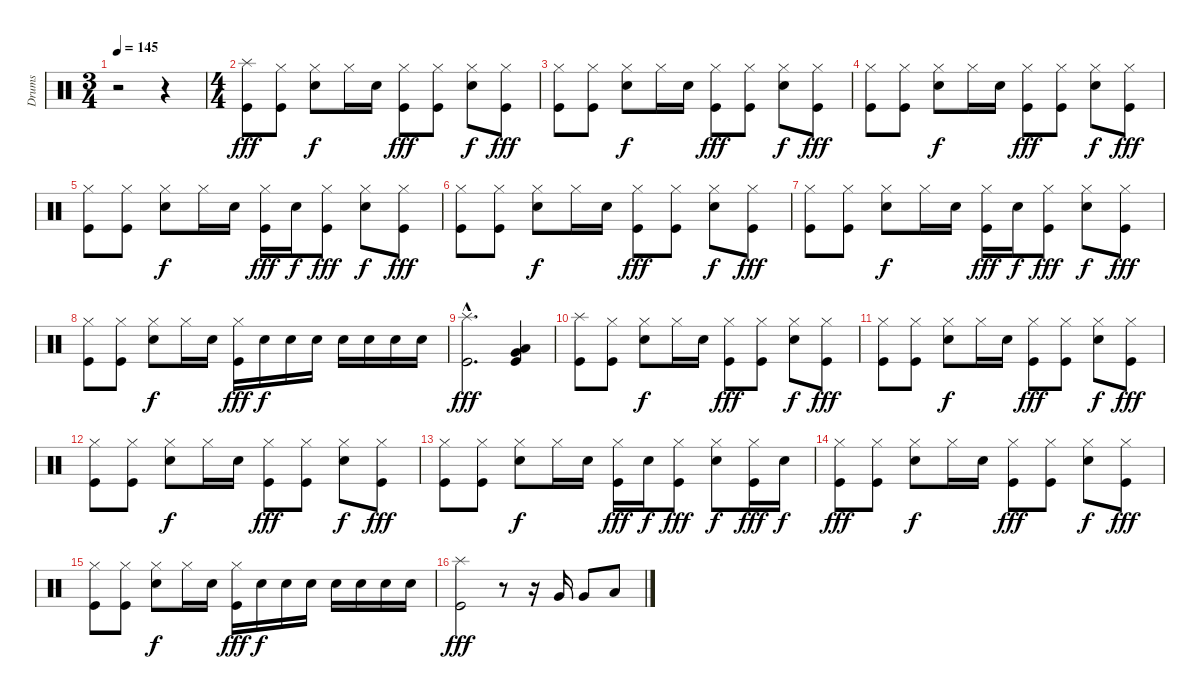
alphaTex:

\track ("Drums" "Drums") {instrument percussion}
\staff {score}
\articulation defaults
\ts (3 4)
\tempo 145
\clef neutral
\ks c
r.2{dy fff} r.4 |
\ts (4 4)
("Splash (hit)" "Kick (hit)").8 ("Hi-Hat (closed)" "Kick (hit)").8 ("Hi-Hat (closed)" "Snare (hit) 2").8{dy f} "Hi-Hat (closed)".16 "Snare (hit) 2".16 ("Hi-Hat (closed)" "Kick (hit)").8{dy fff} ("Hi-Hat (closed)" "Kick (hit)").8 ("Hi-Hat (closed)" "Snare (hit) 2").8{dy f} ("Hi-Hat (closed)" "Kick (hit)").8{dy fff} |
("Hi-Hat (closed)" "Kick (hit)").8 ("Hi-Hat (closed)" "Kick (hit)").8 ("Hi-Hat (closed)" "Snare (hit) 2").8{dy f} "Hi-Hat (closed)".16 "Snare (hit) 2".16 ("Hi-Hat (closed)" "Kick (hit)").8{dy fff} ("Hi-Hat (closed)" "Kick (hit)").8 ("Hi-Hat (closed)" "Snare (hit) 2").8{dy f} ("Hi-Hat (closed)" "Kick (hit)").8{dy fff} |
("Hi-Hat (closed)" "Kick (hit)").8 ("Hi-Hat (closed)" "Kick (hit)").8 ("Hi-Hat (closed)" "Snare (hit) 2").8{dy f} "Hi-Hat (closed)".16 "Snare (hit) 2".16 ("Hi-Hat (closed)" "Kick (hit)").8{dy fff} ("Hi-Hat (closed)" "Kick (hit)").8 ("Hi-Hat (closed)" "Snare (hit) 2").8{dy f} ("Hi-Hat (closed)" "Kick (hit)").8{dy fff} |
("Hi-Hat (closed)" "Kick (hit)").8 ("Hi-Hat (closed)" "Kick (hit)").8 ("Hi-Hat (closed)" "Snare (hit) 2").8{dy f} "Hi-Hat (closed)".16 "Snare (hit) 2".16 ("Hi-Hat (closed)" "Kick (hit)").16{dy fff} "Snare (hit) 2".16{dy f} ("Hi-Hat (closed)" "Kick (hit)").8{dy fff} ("Hi-Hat (closed)" "Snare (hit) 2").8{dy f} ("Hi-Hat (closed)" "Kick (hit)").8{dy fff} |
("Hi-Hat (closed)" "Kick (hit)").8 ("Hi-Hat (closed)" "Kick (hit)").8 ("Hi-Hat (closed)" "Snare (hit) 2").8{dy f} "Hi-Hat (closed)".16 "Snare (hit) 2".16 ("Hi-Hat (closed)" "Kick (hit)").8{dy fff} ("Hi-Hat (closed)" "Kick (hit)").8 ("Hi-Hat (closed)" "Snare (hit) 2").8{dy f} ("Hi-Hat (closed)" "Kick (hit)").8{dy fff} |
("Hi-Hat (closed)" "Kick (hit)").8 ("Hi-Hat (closed)" "Kick (hit)").8 ("Hi-Hat (closed)" "Snare (hit) 2").8{dy f} "Hi-Hat (closed)".16 "Snare (hit) 2".16 ("Hi-Hat (closed)" "Kick (hit)").16{dy fff} "Snare (hit) 2".16{dy f} ("Hi-Hat (closed)" "Kick (hit)").8{dy fff} ("Hi-Hat (closed)" "Snare (hit) 2").8{dy f} ("Hi-Hat (closed)" "Kick (hit)").8{dy fff} |
("Hi-Hat (closed)" "Kick (hit)").8 ("Hi-Hat (closed)" "Kick (hit)").8 ("Hi-Hat (closed)" "Snare (hit) 2").8{dy f} "Hi-Hat (closed)".16 "Snare (hit) 2".16 ("Hi-Hat (closed)" "Kick (hit)").16{dy fff} "Snare (hit) 2".16{dy f} "Snare (hit) 2".16 "Snare (hit) 2".16 "Snare (hit) 2".16 "Snare (hit) 2".16 "Snare (hit) 2".16 "Snare (hit) 2".16 |
("Splash (hit)"{hac} "Kick (hit)"{hac}).2{d dy fff} ("Low Tom (hit)" "Very Low Tom (hit)" "Kick (hit)").4 |
("Splash (hit)" "Kick (hit)").8 ("Hi-Hat (closed)" "Kick (hit)").8 ("Hi-Hat (closed)" "Snare (hit) 2").8{dy f} "Hi-Hat (closed)".16 "Snare (hit) 2".16 ("Hi-Hat (closed)" "Kick (hit)").8{dy fff} ("Hi-Hat (closed)" "Kick (hit)").8 ("Hi-Hat (closed)" "Snare (hit) 2").8{dy f} ("Hi-Hat (closed)" "Kick (hit)").8{dy fff} |
("Hi-Hat (closed)" "Kick (hit)").8 ("Hi-Hat (closed)" "Kick (hit)").8 ("Hi-Hat (closed)" "Snare (hit) 2").8{dy f} "Hi-Hat (closed)".16 "Snare (hit) 2".16 ("Hi-Hat (closed)" "Kick (hit)").8{dy fff} ("Hi-Hat (closed)" "Kick (hit)").8 ("Hi-Hat (closed)" "Snare (hit) 2").8{dy f} ("Hi-Hat (closed)" "Kick (hit)").8{dy fff} |
("Hi-Hat (closed)" "Kick (hit)").8 ("Hi-Hat (closed)" "Kick (hit)").8 ("Hi-Hat (closed)" "Snare (hit) 2").8{dy f} "Hi-Hat (closed)".16 "Snare (hit) 2".16 ("Hi-Hat (closed)" "Kick (hit)").8{dy fff} ("Hi-Hat (closed)" "Kick (hit)").8 ("Hi-Hat (closed)" "Snare (hit) 2").8{dy f} ("Hi-Hat (closed)" "Kick (hit)").8{dy fff} |
("Hi-Hat (closed)" "Kick (hit)").8 ("Hi-Hat (closed)" "Kick (hit)").8 ("Hi-Hat (closed)" "Snare (hit) 2").8{dy f} "Hi-Hat (closed)".16 "Snare (hit) 2".16 ("Hi-Hat (closed)" "Kick (hit)").16{dy fff} "Snare (hit) 2".16{dy f} ("Hi-Hat (closed)" "Kick (hit)").8{dy fff} ("Hi-Hat (closed)" "Snare (hit) 2").8{dy f} ("Hi-Hat (closed)" "Kick (hit)").16{dy fff} "Snare (hit) 2".16{dy f} |
("Hi-Hat (closed)" "Kick (hit)").8{dy fff} ("Hi-Hat (closed)" "Kick (hit)").8 ("Hi-Hat (closed)" "Snare (hit) 2").8{dy f} "Hi-Hat (closed)".16 "Snare (hit) 2".16 ("Hi-Hat (closed)" "Kick (hit)").8{dy fff} ("Hi-Hat (closed)" "Kick (hit)").8 ("Hi-Hat (closed)" "Snare (hit) 2").8{dy f} ("Hi-Hat (closed)" "Kick (hit)").8{dy fff} |
("Hi-Hat (closed)" "Kick (hit)").8 ("Hi-Hat (closed)" "Kick (hit)").8 ("Hi-Hat (closed)" "Snare (hit) 2").8{dy f} "Hi-Hat (closed)".16 "Snare (hit) 2".16 ("Hi-Hat (closed)" "Kick (hit)").16{dy fff} "Snare (hit) 2".16{dy f} "Snare (hit) 2".16 "Snare (hit) 2".16 "Snare (hit) 2".16 "Snare (hit) 2".16 "Snare (hit) 2".16 "Snare (hit) 2".16 |
("Splash (hit)" "Kick (hit)").2{dy fff} r.8 r.16 "Very Low Tom (hit)".16 "Very Low Tom (hit)".8 "Low Tom (hit)".8
